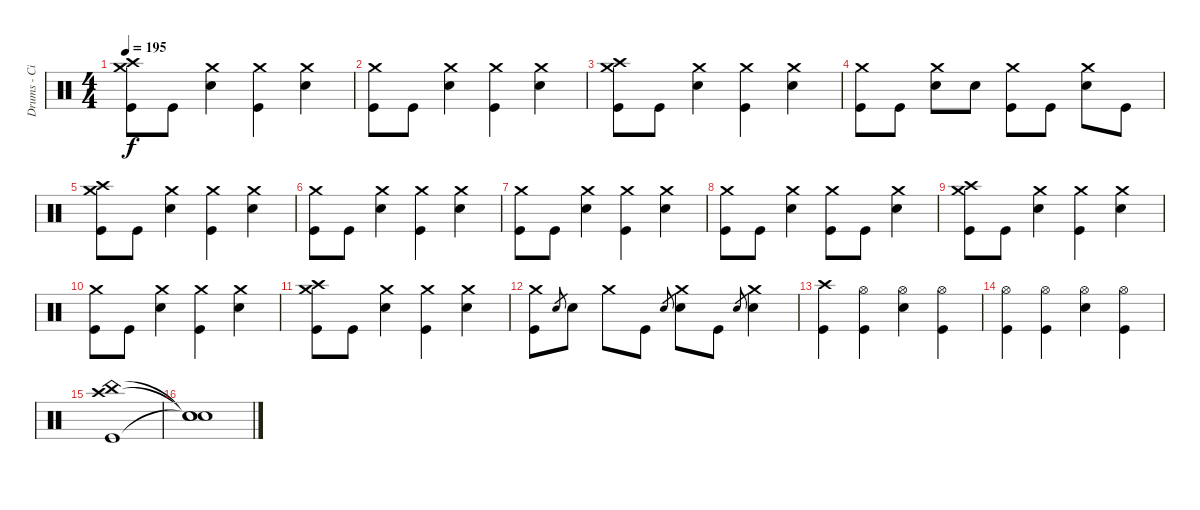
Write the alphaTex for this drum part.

\track ("Drums - Ciro" "Drums - Ci") {instrument percussion}
\staff {score}
\articulation defaults
\ts (4 4)
\tempo 195
\clef neutral
\ks c
("Crash medium (hit)" "Crash high (hit)" "Kick (hit)").8{dy f} "Kick (hit)".8 ("Crash medium (hit)" "Electric Snare (hit)").4 ("Crash medium (hit)" "Kick (hit)").4 ("Crash medium (hit)" "Electric Snare (hit)").4 |
("Crash medium (hit)" "Kick (hit)").8 "Kick (hit)".8 ("Crash medium (hit)" "Electric Snare (hit)").4 ("Crash medium (hit)" "Kick (hit)").4 ("Crash medium (hit)" "Electric Snare (hit)").4 |
("Crash medium (hit)" "Crash high (hit)" "Kick (hit)").8 "Kick (hit)".8 ("Crash medium (hit)" "Electric Snare (hit)").4 ("Crash medium (hit)" "Kick (hit)").4 ("Crash medium (hit)" "Electric Snare (hit)").4 |
("Crash medium (hit)" "Kick (hit)").8 "Kick (hit)".8 ("Crash medium (hit)" "Electric Snare (hit)").8 "Electric Snare (hit)".8 ("Crash medium (hit)" "Kick (hit)").8 "Kick (hit)".8 ("Crash medium (hit)" "Electric Snare (hit)").8 "Kick (hit)".8 |
("Crash medium (hit)" "Crash high (hit)" "Kick (hit)").8 "Kick (hit)".8 ("Crash medium (hit)" "Electric Snare (hit)").4 ("Crash medium (hit)" "Kick (hit)").4 ("Crash medium (hit)" "Electric Snare (hit)").4 |
("Crash medium (hit)" "Kick (hit)").8 "Kick (hit)".8 ("Crash medium (hit)" "Electric Snare (hit)").4 ("Crash medium (hit)" "Kick (hit)").4 ("Crash medium (hit)" "Electric Snare (hit)").4 |
("Crash medium (hit)" "Kick (hit)").8 "Kick (hit)".8 ("Crash medium (hit)" "Electric Snare (hit)").4 ("Crash medium (hit)" "Kick (hit)").4 ("Crash medium (hit)" "Electric Snare (hit)").4 |
("Crash medium (hit)" "Kick (hit)").8 "Kick (hit)".8 ("Crash medium (hit)" "Electric Snare (hit)").4 ("Crash medium (hit)" "Kick (hit)").8 "Kick (hit)".8 ("Crash medium (hit)" "Electric Snare (hit)").4 |
("Crash medium (hit)" "Crash high (hit)" "Kick (hit)").8 "Kick (hit)".8 ("Crash medium (hit)" "Electric Snare (hit)").4 ("Crash medium (hit)" "Kick (hit)").4 ("Crash medium (hit)" "Electric Snare (hit)").4 |
("Crash medium (hit)" "Kick (hit)").8 "Kick (hit)".8 ("Crash medium (hit)" "Electric Snare (hit)").4 ("Crash medium (hit)" "Kick (hit)").4 ("Crash medium (hit)" "Electric Snare (hit)").4 |
("Crash medium (hit)" "Crash high (hit)" "Kick (hit)").8 "Kick (hit)".8 ("Crash medium (hit)" "Electric Snare (hit)").4 ("Crash medium (hit)" "Kick (hit)").4 ("Crash medium (hit)" "Electric Snare (hit)").4 |
("Crash medium (hit)" "Kick (hit)").8 "Electric Snare (hit)".8{gr} "Electric Snare (hit)".8 "Crash medium (hit)".8 "Kick (hit)".8 "Electric Snare (hit)".8{gr} ("Crash medium (hit)" "Electric Snare (hit)").8 "Kick (hit)".8 "Electric Snare (hit)".8{gr} ("Crash medium (hit)" "Electric Snare (hit)").4 |
("Crash high (hit)" "Kick (hit)").4 ("Hi-Hat (open)" "Kick (hit)").4 ("Hi-Hat (open)" "Electric Snare (hit)").4 ("Hi-Hat (open)" "Kick (hit)").4 |
("Hi-Hat (open)" "Kick (hit)").4 ("Hi-Hat (open)" "Kick (hit)").4 ("Hi-Hat (open)" "Electric Snare (hit)").4 ("Hi-Hat (open)" "Kick (hit)").4 |
("China (hit)" "Crash high (hit)" "Kick (hit)").1 |
("Snare (hit)"{t} "Snare (hit)"{t} "Snare (hit)"{t}).1
